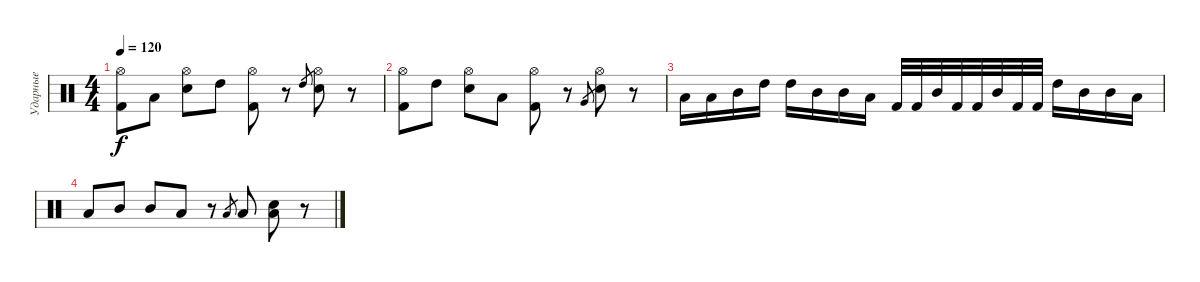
\track ("Ударные" "Ударные") {instrument percussion}
\staff {score}
\articulation defaults
\ts (4 4)
\tempo 120
\clef neutral
\ks c
("Hi-Hat (open)" "Kick (hit) 2").8{dy f} "Low Tom (hit)".8 ("Hi-Hat (open)" "Electric Snare (hit)").8 "High Tom (hit)".8 ("Hi-Hat (open)" "Kick (hit) 2").8 r.8 "High Tom (hit)".8{gr} ("Hi-Hat (open)" "Electric Snare (hit)").8 r.8 |
("Hi-Hat (open)" "Kick (hit) 2").8 "High Tom (hit)".8 ("Hi-Hat (open)" "Electric Snare (hit)").8 "Low Floor Tom (hit)".8 ("Hi-Hat (open)" "Kick (hit) 2").8 r.8 "Very Low Tom (hit)".8{gr} ("Hi-Hat (open)" "Electric Snare (hit)").8 r.8 |
"Low Tom (hit)".16 "Low Tom (hit)".16 "Mid Tom (hit)".16 "High Tom (hit)".16 "High Tom (hit)".16 "Mid Tom (hit)".16 "Mid Tom (hit)".16 "Low Tom (hit)".16 "Kick (hit) 2".32 "Kick (hit) 2".32 "Mid Tom (hit)".32 "Kick (hit) 2".32 "Kick (hit) 2".32 "Mid Tom (hit)".32 "Kick (hit) 2".32 "Kick (hit) 2".32 "High Tom (hit)".16 "Mid Tom (hit)".16 "Mid Tom (hit)".16 "Low Tom (hit)".16 |
"Low Tom (hit)".8 "Mid Tom (hit)".8 "Mid Tom (hit)".8 "Low Floor Tom (hit)".8 r.8 "Low Floor Tom (hit)".8{gr} "Low Floor Tom (hit)".8 ("Electric Snare (hit)" "Low Floor Tom (hit)").8 r.8
